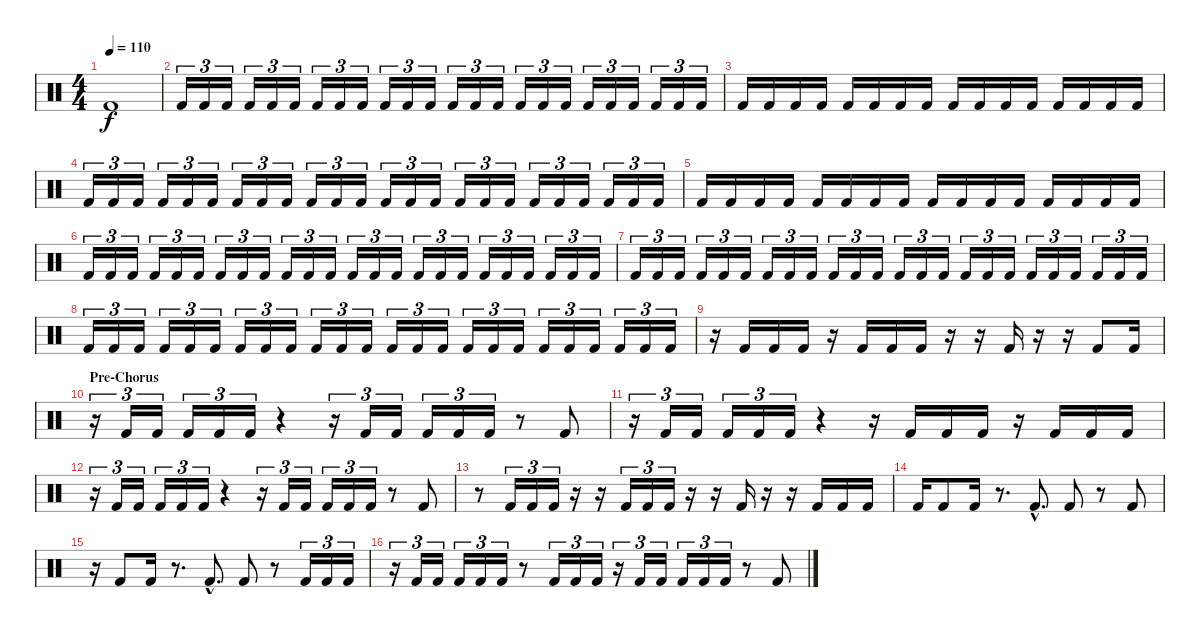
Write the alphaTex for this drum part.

\track "" {instrument percussion}
\staff {score}
\articulation defaults
\ts (4 4)
\tempo 110
\clef neutral
\ks c "Kick (hit) 2".1{dy f}
|
"Kick (hit) 2".16{tu (3 2)} "Kick (hit) 2".16{tu (3 2)} "Kick (hit) 2".16{tu (3 2)} "Kick (hit) 2".16{tu (3 2)} "Kick (hit) 2".16{tu (3 2)} "Kick (hit) 2".16{tu (3 2)} "Kick (hit) 2".16{tu (3 2)} "Kick (hit) 2".16{tu (3 2)} "Kick (hit) 2".16{tu (3 2)} "Kick (hit) 2".16{tu (3 2)} "Kick (hit) 2".16{tu (3 2)} "Kick (hit) 2".16{tu (3 2)} "Kick (hit) 2".16{tu (3 2)} "Kick (hit) 2".16{tu (3 2)} "Kick (hit) 2".16{tu (3 2)} "Kick (hit) 2".16{tu (3 2)} "Kick (hit) 2".16{tu (3 2)} "Kick (hit) 2".16{tu (3 2)} "Kick (hit) 2".16{tu (3 2)} "Kick (hit) 2".16{tu (3 2)} "Kick (hit) 2".16{tu (3 2)} "Kick (hit) 2".16{tu (3 2)} "Kick (hit) 2".16{tu (3 2)} "Kick (hit) 2".16{tu (3 2)} |
"Kick (hit) 2".16 "Kick (hit) 2".16 "Kick (hit) 2".16 "Kick (hit) 2".16 "Kick (hit) 2".16 "Kick (hit) 2".16 "Kick (hit) 2".16 "Kick (hit) 2".16 "Kick (hit) 2".16 "Kick (hit) 2".16 "Kick (hit) 2".16 "Kick (hit) 2".16 "Kick (hit) 2".16 "Kick (hit) 2".16 "Kick (hit) 2".16 "Kick (hit) 2".16 |
"Kick (hit) 2".16{tu (3 2)} "Kick (hit) 2".16{tu (3 2)} "Kick (hit) 2".16{tu (3 2)} "Kick (hit) 2".16{tu (3 2)} "Kick (hit) 2".16{tu (3 2)} "Kick (hit) 2".16{tu (3 2)} "Kick (hit) 2".16{tu (3 2)} "Kick (hit) 2".16{tu (3 2)} "Kick (hit) 2".16{tu (3 2)} "Kick (hit) 2".16{tu (3 2)} "Kick (hit) 2".16{tu (3 2)} "Kick (hit) 2".16{tu (3 2)} "Kick (hit) 2".16{tu (3 2)} "Kick (hit) 2".16{tu (3 2)} "Kick (hit) 2".16{tu (3 2)} "Kick (hit) 2".16{tu (3 2)} "Kick (hit) 2".16{tu (3 2)} "Kick (hit) 2".16{tu (3 2)} "Kick (hit) 2".16{tu (3 2)} "Kick (hit) 2".16{tu (3 2)} "Kick (hit) 2".16{tu (3 2)} "Kick (hit) 2".16{tu (3 2)} "Kick (hit) 2".16{tu (3 2)} "Kick (hit) 2".16{tu (3 2)} |
"Kick (hit) 2".16 "Kick (hit) 2".16 "Kick (hit) 2".16 "Kick (hit) 2".16 "Kick (hit) 2".16 "Kick (hit) 2".16 "Kick (hit) 2".16 "Kick (hit) 2".16 "Kick (hit) 2".16 "Kick (hit) 2".16 "Kick (hit) 2".16 "Kick (hit) 2".16 "Kick (hit) 2".16 "Kick (hit) 2".16 "Kick (hit) 2".16 "Kick (hit) 2".16 |
"Kick (hit) 2".16{tu (3 2)} "Kick (hit) 2".16{tu (3 2)} "Kick (hit) 2".16{tu (3 2)} "Kick (hit) 2".16{tu (3 2)} "Kick (hit) 2".16{tu (3 2)} "Kick (hit) 2".16{tu (3 2)} "Kick (hit) 2".16{tu (3 2)} "Kick (hit) 2".16{tu (3 2)} "Kick (hit) 2".16{tu (3 2)} "Kick (hit) 2".16{tu (3 2)} "Kick (hit) 2".16{tu (3 2)} "Kick (hit) 2".16{tu (3 2)} "Kick (hit) 2".16{tu (3 2)} "Kick (hit) 2".16{tu (3 2)} "Kick (hit) 2".16{tu (3 2)} "Kick (hit) 2".16{tu (3 2)} "Kick (hit) 2".16{tu (3 2)} "Kick (hit) 2".16{tu (3 2)} "Kick (hit) 2".16{tu (3 2)} "Kick (hit) 2".16{tu (3 2)} "Kick (hit) 2".16{tu (3 2)} "Kick (hit) 2".16{tu (3 2)} "Kick (hit) 2".16{tu (3 2)} "Kick (hit) 2".16{tu (3 2)} |
"Kick (hit) 2".16{tu (3 2)} "Kick (hit) 2".16{tu (3 2)} "Kick (hit) 2".16{tu (3 2)} "Kick (hit) 2".16{tu (3 2)} "Kick (hit) 2".16{tu (3 2)} "Kick (hit) 2".16{tu (3 2)} "Kick (hit) 2".16{tu (3 2)} "Kick (hit) 2".16{tu (3 2)} "Kick (hit) 2".16{tu (3 2)} "Kick (hit) 2".16{tu (3 2)} "Kick (hit) 2".16{tu (3 2)} "Kick (hit) 2".16{tu (3 2)} "Kick (hit) 2".16{tu (3 2)} "Kick (hit) 2".16{tu (3 2)} "Kick (hit) 2".16{tu (3 2)} "Kick (hit) 2".16{tu (3 2)} "Kick (hit) 2".16{tu (3 2)} "Kick (hit) 2".16{tu (3 2)} "Kick (hit) 2".16{tu (3 2)} "Kick (hit) 2".16{tu (3 2)} "Kick (hit) 2".16{tu (3 2)} "Kick (hit) 2".16{tu (3 2)} "Kick (hit) 2".16{tu (3 2)} "Kick (hit) 2".16{tu (3 2)} |
"Kick (hit) 2".16{tu (3 2)} "Kick (hit) 2".16{tu (3 2)} "Kick (hit) 2".16{tu (3 2)} "Kick (hit) 2".16{tu (3 2)} "Kick (hit) 2".16{tu (3 2)} "Kick (hit) 2".16{tu (3 2)} "Kick (hit) 2".16{tu (3 2)} "Kick (hit) 2".16{tu (3 2)} "Kick (hit) 2".16{tu (3 2)} "Kick (hit) 2".16{tu (3 2)} "Kick (hit) 2".16{tu (3 2)} "Kick (hit) 2".16{tu (3 2)} "Kick (hit) 2".16{tu (3 2)} "Kick (hit) 2".16{tu (3 2)} "Kick (hit) 2".16{tu (3 2)} "Kick (hit) 2".16{tu (3 2)} "Kick (hit) 2".16{tu (3 2)} "Kick (hit) 2".16{tu (3 2)} "Kick (hit) 2".16{tu (3 2)} "Kick (hit) 2".16{tu (3 2)} "Kick (hit) 2".16{tu (3 2)} "Kick (hit) 2".16{tu (3 2)} "Kick (hit) 2".16{tu (3 2)} "Kick (hit) 2".16{tu (3 2)} |
r.16 "Kick (hit) 2".16 "Kick (hit) 2".16 "Kick (hit) 2".16 r.16 "Kick (hit) 2".16 "Kick (hit) 2".16 "Kick (hit) 2".16 r.16 r.16 "Kick (hit) 2".16 r.16 r.16 "Kick (hit) 2".8 "Kick (hit) 2".16 |
\section ("" "Pre-Chorus")
r.16{tu (3 2)} "Kick (hit) 2".16{tu (3 2)} "Kick (hit) 2".16{tu (3 2)} "Kick (hit) 2".16{tu (3 2)} "Kick (hit) 2".16{tu (3 2)} "Kick (hit) 2".16{tu (3 2)} r.4 r.16{tu (3 2)} "Kick (hit) 2".16{tu (3 2)} "Kick (hit) 2".16{tu (3 2)} "Kick (hit) 2".16{tu (3 2)} "Kick (hit) 2".16{tu (3 2)} "Kick (hit) 2".16{tu (3 2)} r.8 "Kick (hit) 2".8 |
r.16{tu (3 2)} "Kick (hit) 2".16{tu (3 2)} "Kick (hit) 2".16{tu (3 2)} "Kick (hit) 2".16{tu (3 2)} "Kick (hit) 2".16{tu (3 2)} "Kick (hit) 2".16{tu (3 2)} r.4 r.16 "Kick (hit) 2".16 "Kick (hit) 2".16 "Kick (hit) 2".16 r.16 "Kick (hit) 2".16 "Kick (hit) 2".16 "Kick (hit) 2".16 |
r.16{tu (3 2)} "Kick (hit) 2".16{tu (3 2)} "Kick (hit) 2".16{tu (3 2)} "Kick (hit) 2".16{tu (3 2)} "Kick (hit) 2".16{tu (3 2)} "Kick (hit) 2".16{tu (3 2)} r.4 r.16{tu (3 2)} "Kick (hit) 2".16{tu (3 2)} "Kick (hit) 2".16{tu (3 2)} "Kick (hit) 2".16{tu (3 2)} "Kick (hit) 2".16{tu (3 2)} "Kick (hit) 2".16{tu (3 2)} r.8 "Kick (hit) 2".8 |
r.8 "Kick (hit) 2".16{tu (3 2)} "Kick (hit) 2".16{tu (3 2)} "Kick (hit) 2".16{tu (3 2)} r.16 r.16 "Kick (hit) 2".16{tu (3 2)} "Kick (hit) 2".16{tu (3 2)} "Kick (hit) 2".16{tu (3 2)} r.16 r.16 "Kick (hit) 2".16 r.16 r.16 "Kick (hit) 2".16 "Kick (hit) 2".16 "Kick (hit) 2".16 |
"Kick (hit) 2".16 "Kick (hit) 2".8 "Kick (hit) 2".16 r.8{d} "Kick (hit) 2"{hac}.8{d} "Kick (hit) 2".8 r.8 "Kick (hit) 2".8 |
r.16 "Kick (hit) 2".8 "Kick (hit) 2".16 r.8{d} "Kick (hit) 2"{hac}.8{d} "Kick (hit) 2".8 r.8 "Kick (hit) 2".16{tu (3 2)} "Kick (hit) 2".16{tu (3 2)} "Kick (hit) 2".16{tu (3 2)} |
r.16{tu (3 2)} "Kick (hit) 2".16{tu (3 2)} "Kick (hit) 2".16{tu (3 2)} "Kick (hit) 2".16{tu (3 2)} "Kick (hit) 2".16{tu (3 2)} "Kick (hit) 2".16{tu (3 2)} r.8 "Kick (hit) 2".16{tu (3 2)} "Kick (hit) 2".16{tu (3 2)} "Kick (hit) 2".16{tu (3 2)} r.16{tu (3 2)} "Kick (hit) 2".16{tu (3 2)} "Kick (hit) 2".16{tu (3 2)} "Kick (hit) 2".16{tu (3 2)} "Kick (hit) 2".16{tu (3 2)} "Kick (hit) 2".16{tu (3 2)} r.8 "Kick (hit) 2".8
